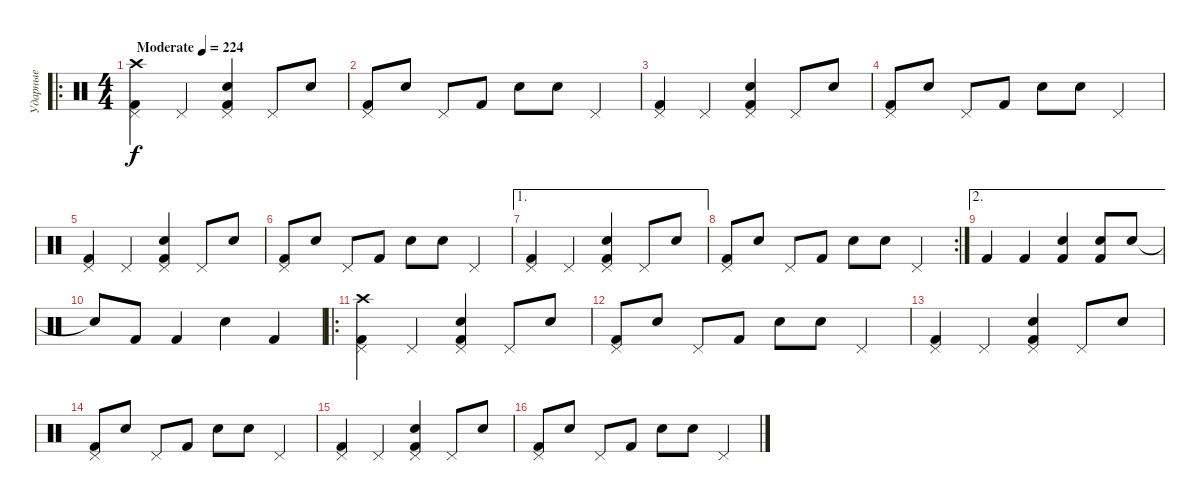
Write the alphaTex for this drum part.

\track ("Ударные" "Ударные") {instrument percussion}
\staff {score}
\articulation defaults
\ro
\ts (4 4)
\tempo (224 "Moderate")
\clef neutral
\ks c
("Kick (hit) 2" "Pedal Hi-Hat (hit)" "Crash high (hit)").4{dy f} "Pedal Hi-Hat (hit)".4 ("Kick (hit) 2" "Pedal Hi-Hat (hit)" "Snare (hit) 2").4 "Pedal Hi-Hat (hit)".8 "Snare (hit) 2".8 |
("Kick (hit) 2" "Pedal Hi-Hat (hit)").8 "Snare (hit) 2".8 "Pedal Hi-Hat (hit)".8 "Kick (hit) 2".8 "Snare (hit) 2".8 "Snare (hit) 2".8 "Pedal Hi-Hat (hit)".4 |
("Kick (hit) 2" "Pedal Hi-Hat (hit)").4 "Pedal Hi-Hat (hit)".4 ("Kick (hit) 2" "Pedal Hi-Hat (hit)" "Snare (hit) 2").4 "Pedal Hi-Hat (hit)".8 "Snare (hit) 2".8 |
("Kick (hit) 2" "Pedal Hi-Hat (hit)").8 "Snare (hit) 2".8 "Pedal Hi-Hat (hit)".8 "Kick (hit) 2".8 "Snare (hit) 2".8 "Snare (hit) 2".8 "Pedal Hi-Hat (hit)".4 |
("Kick (hit) 2" "Pedal Hi-Hat (hit)").4 "Pedal Hi-Hat (hit)".4 ("Kick (hit) 2" "Pedal Hi-Hat (hit)" "Snare (hit) 2").4 "Pedal Hi-Hat (hit)".8 "Snare (hit) 2".8 |
("Kick (hit) 2" "Pedal Hi-Hat (hit)").8 "Snare (hit) 2".8 "Pedal Hi-Hat (hit)".8 "Kick (hit) 2".8 "Snare (hit) 2".8 "Snare (hit) 2".8 "Pedal Hi-Hat (hit)".4 |
\ae 1
("Kick (hit) 2" "Pedal Hi-Hat (hit)").4 "Pedal Hi-Hat (hit)".4 ("Kick (hit) 2" "Pedal Hi-Hat (hit)" "Snare (hit) 2").4 "Pedal Hi-Hat (hit)".8 "Snare (hit) 2".8 |
\rc 2
("Kick (hit) 2" "Pedal Hi-Hat (hit)").8 "Snare (hit) 2".8 "Pedal Hi-Hat (hit)".8 "Kick (hit) 2".8 "Snare (hit) 2".8 "Snare (hit) 2".8 "Pedal Hi-Hat (hit)".4 |
\ae 2 "Kick (hit) 2".4 "Kick (hit) 2".4
("Kick (hit) 2" "Snare (hit) 2").4 ("Kick (hit) 2" "Snare (hit) 2").8 "Snare (hit) 2".8 |
"Snare (hit)"{t}.8 "Kick (hit) 2".8 "Kick (hit) 2".4 "Snare (hit) 2".4 "Kick (hit) 2".4 |
\ro
("Kick (hit) 2" "Pedal Hi-Hat (hit)" "Crash high (hit)").4 "Pedal Hi-Hat (hit)".4 ("Kick (hit) 2" "Pedal Hi-Hat (hit)" "Snare (hit) 2").4 "Pedal Hi-Hat (hit)".8 "Snare (hit) 2".8 |
("Kick (hit) 2" "Pedal Hi-Hat (hit)").8 "Snare (hit) 2".8 "Pedal Hi-Hat (hit)".8 "Kick (hit) 2".8 "Snare (hit) 2".8 "Snare (hit) 2".8 "Pedal Hi-Hat (hit)".4 |
("Kick (hit) 2" "Pedal Hi-Hat (hit)").4 "Pedal Hi-Hat (hit)".4 ("Kick (hit) 2" "Pedal Hi-Hat (hit)" "Snare (hit) 2").4 "Pedal Hi-Hat (hit)".8 "Snare (hit) 2".8 |
("Kick (hit) 2" "Pedal Hi-Hat (hit)").8 "Snare (hit) 2".8 "Pedal Hi-Hat (hit)".8 "Kick (hit) 2".8 "Snare (hit) 2".8 "Snare (hit) 2".8 "Pedal Hi-Hat (hit)".4 |
("Kick (hit) 2" "Pedal Hi-Hat (hit)").4 "Pedal Hi-Hat (hit)".4 ("Kick (hit) 2" "Pedal Hi-Hat (hit)" "Snare (hit) 2").4 "Pedal Hi-Hat (hit)".8 "Snare (hit) 2".8 |
("Kick (hit) 2" "Pedal Hi-Hat (hit)").8 "Snare (hit) 2".8 "Pedal Hi-Hat (hit)".8 "Kick (hit) 2".8 "Snare (hit) 2".8 "Snare (hit) 2".8 "Pedal Hi-Hat (hit)".4
